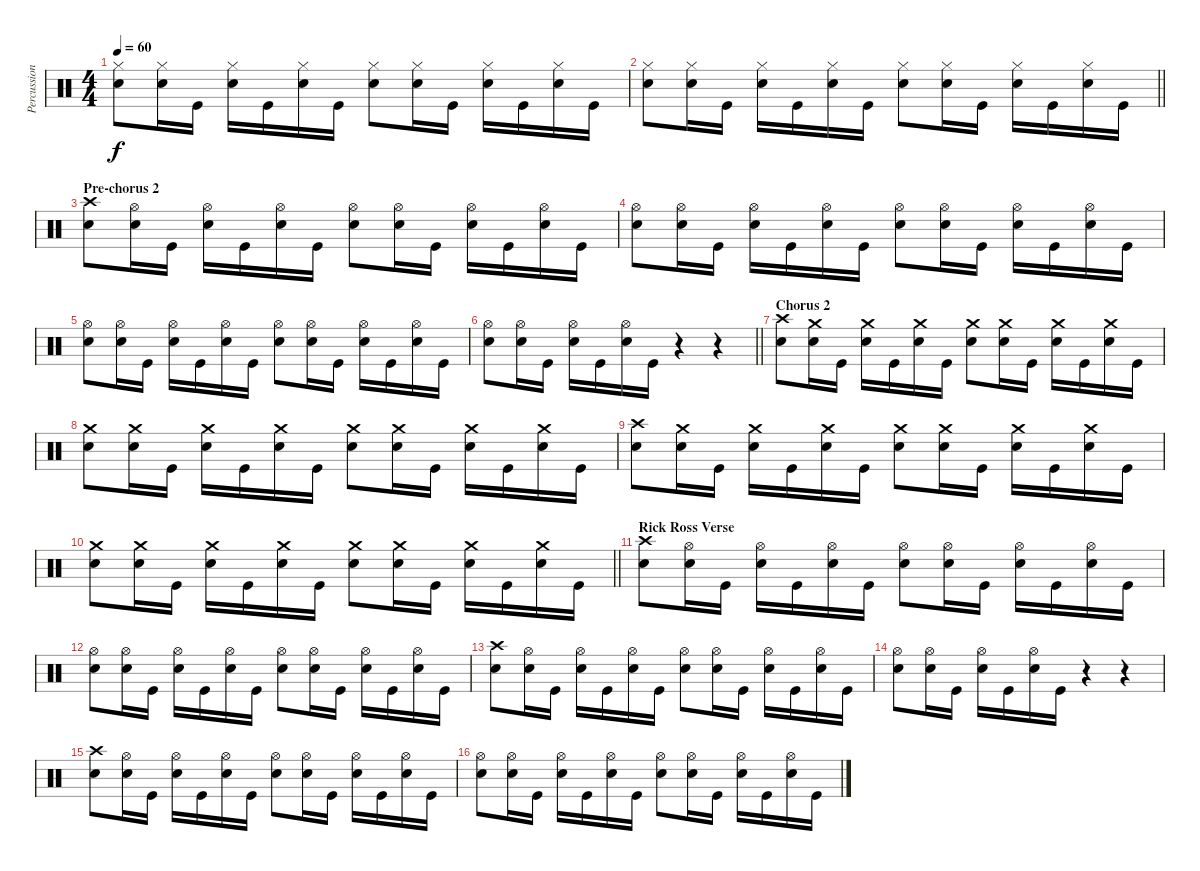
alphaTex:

\track ("Percussions" "Percussion") {instrument percussion}
\staff {score}
\articulation defaults
\ts (4 4)
\tempo 60
\clef neutral
\ks c
("Snare (hit) 2" "Hi-Hat (closed)").8{dy f} ("Snare (hit) 2" "Hi-Hat (closed)").16 "Kick (hit)".16 ("Snare (hit) 2" "Hi-Hat (closed)").16 "Kick (hit)".16 ("Snare (hit) 2" "Hi-Hat (closed)").16 "Kick (hit)".16 ("Snare (hit) 2" "Hi-Hat (closed)").8 ("Snare (hit) 2" "Hi-Hat (closed)").16 "Kick (hit)".16 ("Snare (hit) 2" "Hi-Hat (closed)").16 "Kick (hit)".16 ("Snare (hit) 2" "Hi-Hat (closed)").16 "Kick (hit)".16 |
\barLineRight lightlight
("Snare (hit) 2" "Hi-Hat (closed)").8 ("Snare (hit) 2" "Hi-Hat (closed)").16 "Kick (hit)".16 ("Snare (hit) 2" "Hi-Hat (closed)").16 "Kick (hit)".16 ("Snare (hit) 2" "Hi-Hat (closed)").16 "Kick (hit)".16 ("Snare (hit) 2" "Hi-Hat (closed)").8 ("Snare (hit) 2" "Hi-Hat (closed)").16 "Kick (hit)".16 ("Snare (hit) 2" "Hi-Hat (closed)").16 "Kick (hit)".16 ("Snare (hit) 2" "Hi-Hat (closed)").16 "Kick (hit)".16 |
\section ("" "Pre-chorus 2")
("Snare (hit) 2" "Crash high (hit)").8 ("Snare (hit) 2" "Hi-Hat (open)").16 "Kick (hit)".16 ("Snare (hit) 2" "Hi-Hat (open)").16 "Kick (hit)".16 ("Snare (hit) 2" "Hi-Hat (open)").16 "Kick (hit)".16 ("Snare (hit) 2" "Hi-Hat (open)").8 ("Snare (hit) 2" "Hi-Hat (open)").16 "Kick (hit)".16 ("Snare (hit) 2" "Hi-Hat (open)").16 "Kick (hit)".16 ("Snare (hit) 2" "Hi-Hat (open)").16 "Kick (hit)".16 |
("Snare (hit) 2" "Hi-Hat (open)").8 ("Snare (hit) 2" "Hi-Hat (open)").16 "Kick (hit)".16 ("Snare (hit) 2" "Hi-Hat (open)").16 "Kick (hit)".16 ("Snare (hit) 2" "Hi-Hat (open)").16 "Kick (hit)".16 ("Snare (hit) 2" "Hi-Hat (open)").8 ("Snare (hit) 2" "Hi-Hat (open)").16 "Kick (hit)".16 ("Snare (hit) 2" "Hi-Hat (open)").16 "Kick (hit)".16 ("Snare (hit) 2" "Hi-Hat (open)").16 "Kick (hit)".16 |
("Snare (hit) 2" "Hi-Hat (open)").8 ("Snare (hit) 2" "Hi-Hat (open)").16 "Kick (hit)".16 ("Snare (hit) 2" "Hi-Hat (open)").16 "Kick (hit)".16 ("Snare (hit) 2" "Hi-Hat (open)").16 "Kick (hit)".16 ("Snare (hit) 2" "Hi-Hat (open)").8 ("Snare (hit) 2" "Hi-Hat (open)").16 "Kick (hit)".16 ("Snare (hit) 2" "Hi-Hat (open)").16 "Kick (hit)".16 ("Snare (hit) 2" "Hi-Hat (open)").16 "Kick (hit)".16 |
\barLineRight lightlight
("Snare (hit) 2" "Hi-Hat (open)").8 ("Snare (hit) 2" "Hi-Hat (open)").16 "Kick (hit)".16 ("Snare (hit) 2" "Hi-Hat (open)").16 "Kick (hit)".16 ("Snare (hit) 2" "Hi-Hat (open)").16 "Kick (hit)".16 r.4 r.4 |
\section ("" "Chorus 2")
("Snare (hit) 2" "Crash high (hit)").8 ("Snare (hit) 2" "Crash medium (hit)").16 "Kick (hit)".16 ("Snare (hit) 2" "Crash medium (hit)").16 "Kick (hit)".16 ("Snare (hit) 2" "Crash medium (hit)").16 "Kick (hit)".16 ("Snare (hit) 2" "Crash medium (hit)").8 ("Snare (hit) 2" "Crash medium (hit)").16 "Kick (hit)".16 ("Snare (hit) 2" "Crash medium (hit)").16 "Kick (hit)".16 ("Snare (hit) 2" "Crash medium (hit)").16 "Kick (hit)".16 |
("Snare (hit) 2" "Crash medium (hit)").8 ("Snare (hit) 2" "Crash medium (hit)").16 "Kick (hit)".16 ("Snare (hit) 2" "Crash medium (hit)").16 "Kick (hit)".16 ("Snare (hit) 2" "Crash medium (hit)").16 "Kick (hit)".16 ("Snare (hit) 2" "Crash medium (hit)").8 ("Snare (hit) 2" "Crash medium (hit)").16 "Kick (hit)".16 ("Snare (hit) 2" "Crash medium (hit)").16 "Kick (hit)".16 ("Snare (hit) 2" "Crash medium (hit)").16 "Kick (hit)".16 |
("Snare (hit) 2" "Crash high (hit)").8 ("Snare (hit) 2" "Crash medium (hit)").16 "Kick (hit)".16 ("Snare (hit) 2" "Crash medium (hit)").16 "Kick (hit)".16 ("Snare (hit) 2" "Crash medium (hit)").16 "Kick (hit)".16 ("Snare (hit) 2" "Crash medium (hit)").8 ("Snare (hit) 2" "Crash medium (hit)").16 "Kick (hit)".16 ("Snare (hit) 2" "Crash medium (hit)").16 "Kick (hit)".16 ("Snare (hit) 2" "Crash medium (hit)").16 "Kick (hit)".16 |
\barLineRight lightlight
("Snare (hit) 2" "Crash medium (hit)").8 ("Snare (hit) 2" "Crash medium (hit)").16 "Kick (hit)".16 ("Snare (hit) 2" "Crash medium (hit)").16 "Kick (hit)".16 ("Snare (hit) 2" "Crash medium (hit)").16 "Kick (hit)".16 ("Snare (hit) 2" "Crash medium (hit)").8 ("Snare (hit) 2" "Crash medium (hit)").16 "Kick (hit)".16 ("Snare (hit) 2" "Crash medium (hit)").16 "Kick (hit)".16 ("Snare (hit) 2" "Crash medium (hit)").16 "Kick (hit)".16 |
\section ("" "Rick Ross Verse")
("Snare (hit) 2" "Crash high (hit)").8{volume 9} ("Snare (hit) 2" "Hi-Hat (open)").16 "Kick (hit)".16 ("Snare (hit) 2" "Hi-Hat (open)").16 "Kick (hit)".16 ("Snare (hit) 2" "Hi-Hat (open)").16 "Kick (hit)".16 ("Snare (hit) 2" "Hi-Hat (open)").8 ("Snare (hit) 2" "Hi-Hat (open)").16 "Kick (hit)".16 ("Snare (hit) 2" "Hi-Hat (open)").16 "Kick (hit)".16 ("Snare (hit) 2" "Hi-Hat (open)").16 "Kick (hit)".16 |
("Snare (hit) 2" "Hi-Hat (open)").8 ("Snare (hit) 2" "Hi-Hat (open)").16 "Kick (hit)".16 ("Snare (hit) 2" "Hi-Hat (open)").16 "Kick (hit)".16 ("Snare (hit) 2" "Hi-Hat (open)").16 "Kick (hit)".16 ("Snare (hit) 2" "Hi-Hat (open)").8 ("Snare (hit) 2" "Hi-Hat (open)").16 "Kick (hit)".16 ("Snare (hit) 2" "Hi-Hat (open)").16 "Kick (hit)".16 ("Snare (hit) 2" "Hi-Hat (open)").16 "Kick (hit)".16 |
("Snare (hit) 2" "Crash high (hit)").8 ("Snare (hit) 2" "Hi-Hat (open)").16 "Kick (hit)".16 ("Snare (hit) 2" "Hi-Hat (open)").16 "Kick (hit)".16 ("Snare (hit) 2" "Hi-Hat (open)").16 "Kick (hit)".16 ("Snare (hit) 2" "Hi-Hat (open)").8 ("Snare (hit) 2" "Hi-Hat (open)").16 "Kick (hit)".16 ("Snare (hit) 2" "Hi-Hat (open)").16 "Kick (hit)".16 ("Snare (hit) 2" "Hi-Hat (open)").16 "Kick (hit)".16 |
("Snare (hit) 2" "Hi-Hat (open)").8 ("Snare (hit) 2" "Hi-Hat (open)").16 "Kick (hit)".16 ("Snare (hit) 2" "Hi-Hat (open)").16 "Kick (hit)".16 ("Snare (hit) 2" "Hi-Hat (open)").16 "Kick (hit)".16 r.4 r.4 |
("Snare (hit) 2" "Crash high (hit)").8{volume 13} ("Snare (hit) 2" "Hi-Hat (open)").16 "Kick (hit)".16 ("Snare (hit) 2" "Hi-Hat (open)").16 "Kick (hit)".16 ("Snare (hit) 2" "Hi-Hat (open)").16 "Kick (hit)".16 ("Snare (hit) 2" "Hi-Hat (open)").8 ("Snare (hit) 2" "Hi-Hat (open)").16 "Kick (hit)".16 ("Snare (hit) 2" "Hi-Hat (open)").16 "Kick (hit)".16 ("Snare (hit) 2" "Hi-Hat (open)").16 "Kick (hit)".16 |
("Snare (hit) 2" "Hi-Hat (open)").8 ("Snare (hit) 2" "Hi-Hat (open)").16 "Kick (hit)".16 ("Snare (hit) 2" "Hi-Hat (open)").16 "Kick (hit)".16 ("Snare (hit) 2" "Hi-Hat (open)").16 "Kick (hit)".16 ("Snare (hit) 2" "Hi-Hat (open)").8 ("Snare (hit) 2" "Hi-Hat (open)").16 "Kick (hit)".16 ("Snare (hit) 2" "Hi-Hat (open)").16 "Kick (hit)".16 ("Snare (hit) 2" "Hi-Hat (open)").16 "Kick (hit)".16
